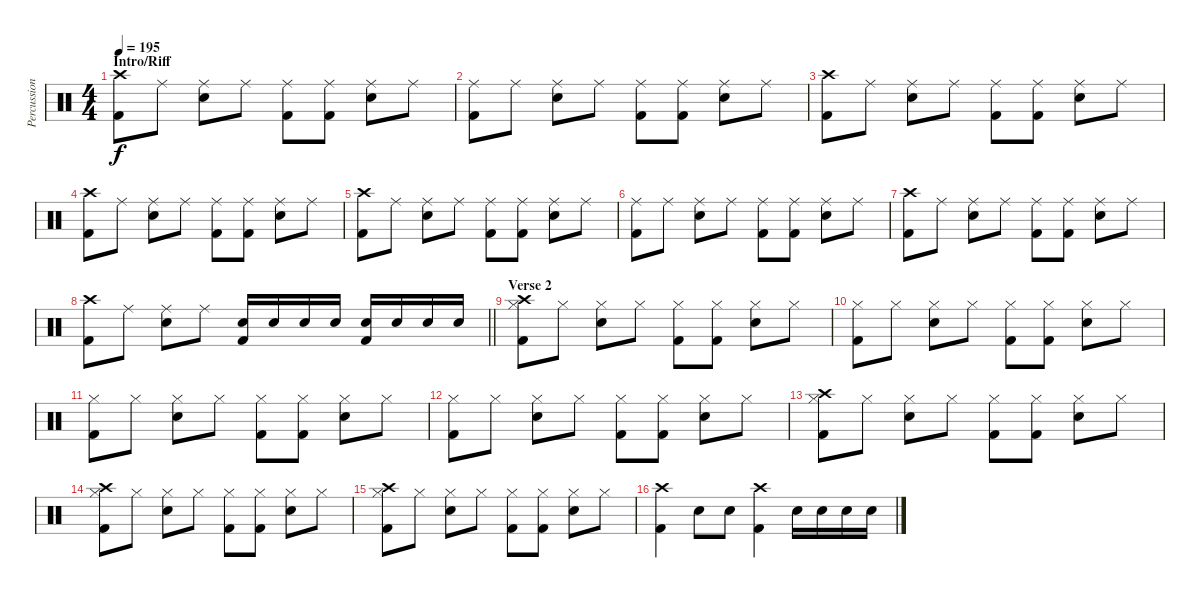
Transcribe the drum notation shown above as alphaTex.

\track ("Percussion" "Percussion") {instrument percussion}
\staff {score}
\articulation defaults
\ts (4 4)
\section ("" "Intro/Riff")
\tempo 195
\clef neutral
\ks c
("Crash high (hit)" "Kick (hit) 2").8{dy f} "Ride (middle)".8 ("Ride (middle)" "Electric Snare (hit)").8 "Ride (middle)".8 ("Ride (middle)" "Kick (hit) 2").8 ("Ride (middle)" "Kick (hit) 2").8 ("Ride (middle)" "Electric Snare (hit)").8 "Ride (middle)".8 |
("Ride (middle)" "Kick (hit) 2").8 "Ride (middle)".8 ("Ride (middle)" "Electric Snare (hit)").8 "Ride (middle)".8 ("Ride (middle)" "Kick (hit) 2").8 ("Ride (middle)" "Kick (hit) 2").8 ("Ride (middle)" "Electric Snare (hit)").8 "Ride (middle)".8 |
("Crash high (hit)" "Kick (hit) 2").8 "Ride (middle)".8 ("Ride (middle)" "Electric Snare (hit)").8 "Ride (middle)".8 ("Ride (middle)" "Kick (hit) 2").8 ("Ride (middle)" "Kick (hit) 2").8 ("Ride (middle)" "Electric Snare (hit)").8 "Ride (middle)".8 |
("Crash high (hit)" "Kick (hit) 2").8 "Ride (middle)".8 ("Ride (middle)" "Electric Snare (hit)").8 "Ride (middle)".8 ("Ride (middle)" "Kick (hit) 2").8 ("Ride (middle)" "Kick (hit) 2").8 ("Ride (middle)" "Electric Snare (hit)").8 "Ride (middle)".8 |
("Crash high (hit)" "Kick (hit) 2").8 "Ride (middle)".8 ("Ride (middle)" "Electric Snare (hit)").8 "Ride (middle)".8 ("Ride (middle)" "Kick (hit) 2").8 ("Ride (middle)" "Kick (hit) 2").8 ("Ride (middle)" "Electric Snare (hit)").8 "Ride (middle)".8 |
("Ride (middle)" "Kick (hit) 2").8 "Ride (middle)".8 ("Ride (middle)" "Electric Snare (hit)").8 "Ride (middle)".8 ("Ride (middle)" "Kick (hit) 2").8 ("Ride (middle)" "Kick (hit) 2").8 ("Ride (middle)" "Electric Snare (hit)").8 "Ride (middle)".8 |
("Crash high (hit)" "Kick (hit) 2").8 "Ride (middle)".8 ("Ride (middle)" "Electric Snare (hit)").8 "Ride (middle)".8 ("Ride (middle)" "Kick (hit) 2").8 ("Ride (middle)" "Kick (hit) 2").8 ("Ride (middle)" "Electric Snare (hit)").8 "Ride (middle)".8 |
\barLineRight lightlight
("Crash high (hit)" "Kick (hit) 2").8 "Ride (middle)".8 ("Ride (middle)" "Electric Snare (hit)").8 "Ride (middle)".8 ("Electric Snare (hit)" "Kick (hit) 2").16 "Electric Snare (hit)".16 "Electric Snare (hit)".16 "Electric Snare (hit)".16 ("Electric Snare (hit)" "Kick (hit) 2").16 "Electric Snare (hit)".16 "Electric Snare (hit)".16 "Electric Snare (hit)".16 |
\section ("" "Verse 2")
("Crash high (hit)" "Hi-Hat (closed)" "Kick (hit) 2").8 "Hi-Hat (closed)".8 ("Hi-Hat (closed)" "Electric Snare (hit)").8 "Hi-Hat (closed)".8 ("Hi-Hat (closed)" "Kick (hit) 2").8 ("Hi-Hat (closed)" "Kick (hit) 2").8 ("Hi-Hat (closed)" "Electric Snare (hit)").8 "Hi-Hat (closed)".8 |
("Hi-Hat (closed)" "Kick (hit) 2").8 "Hi-Hat (closed)".8 ("Hi-Hat (closed)" "Electric Snare (hit)").8 "Hi-Hat (closed)".8 ("Hi-Hat (closed)" "Kick (hit) 2").8 ("Hi-Hat (closed)" "Kick (hit) 2").8 ("Hi-Hat (closed)" "Electric Snare (hit)").8 "Hi-Hat (closed)".8 |
("Hi-Hat (closed)" "Kick (hit) 2").8 "Hi-Hat (closed)".8 ("Hi-Hat (closed)" "Electric Snare (hit)").8 "Hi-Hat (closed)".8 ("Hi-Hat (closed)" "Kick (hit) 2").8 ("Hi-Hat (closed)" "Kick (hit) 2").8 ("Hi-Hat (closed)" "Electric Snare (hit)").8 "Hi-Hat (closed)".8 |
("Hi-Hat (closed)" "Kick (hit) 2").8 "Hi-Hat (closed)".8 ("Hi-Hat (closed)" "Electric Snare (hit)").8 "Hi-Hat (closed)".8 ("Hi-Hat (closed)" "Kick (hit) 2").8 ("Hi-Hat (closed)" "Kick (hit) 2").8 ("Hi-Hat (closed)" "Electric Snare (hit)").8 "Hi-Hat (closed)".8 |
("Crash high (hit)" "Hi-Hat (closed)" "Kick (hit) 2").8 "Hi-Hat (closed)".8 ("Hi-Hat (closed)" "Electric Snare (hit)").8 "Hi-Hat (closed)".8 ("Hi-Hat (closed)" "Kick (hit) 2").8 ("Hi-Hat (closed)" "Kick (hit) 2").8 ("Hi-Hat (closed)" "Electric Snare (hit)").8 "Hi-Hat (closed)".8 |
("Crash high (hit)" "Hi-Hat (closed)" "Kick (hit) 2").8 "Hi-Hat (closed)".8 ("Hi-Hat (closed)" "Electric Snare (hit)").8 "Hi-Hat (closed)".8 ("Hi-Hat (closed)" "Kick (hit) 2").8 ("Hi-Hat (closed)" "Kick (hit) 2").8 ("Hi-Hat (closed)" "Electric Snare (hit)").8 "Hi-Hat (closed)".8 |
("Crash high (hit)" "Hi-Hat (closed)" "Kick (hit) 2").8 "Hi-Hat (closed)".8 ("Hi-Hat (closed)" "Electric Snare (hit)").8 "Hi-Hat (closed)".8 ("Hi-Hat (closed)" "Kick (hit) 2").8 ("Hi-Hat (closed)" "Kick (hit) 2").8 ("Hi-Hat (closed)" "Electric Snare (hit)").8 "Hi-Hat (closed)".8 |
("Crash high (hit)" "Kick (hit) 2").4 "Electric Snare (hit)".8 "Electric Snare (hit)".8 ("Crash high (hit)" "Kick (hit) 2").4 "Electric Snare (hit)".16 "Electric Snare (hit)".16 "Electric Snare (hit)".16 "Electric Snare (hit)".16
